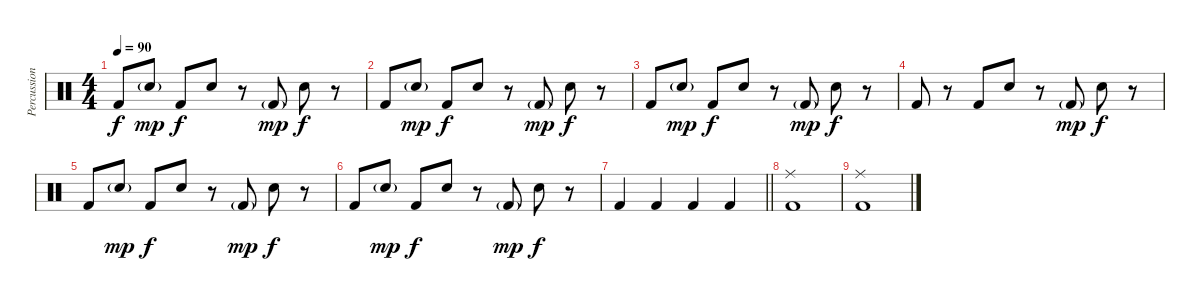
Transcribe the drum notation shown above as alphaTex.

\track ("Percussion" "Percussion") {instrument percussion}
\staff {score}
\articulation defaults
\ts (4 4)
\tempo 90
\clef neutral
\ks c "Kick (hit) 2".8{dy f} "Snare (hit) 2"{g}.8{dy mp} "Kick (hit) 2".8{dy f} "Snare (hit) 2".8
r.8 "Kick (hit) 2"{g}.8{dy mp} "Snare (hit) 2".8{dy f} r.8 |
"Kick (hit) 2".8 "Snare (hit) 2"{g}.8{dy mp} "Kick (hit) 2".8{dy f} "Snare (hit) 2".8 r.8 "Kick (hit) 2"{g}.8{dy mp} "Snare (hit) 2".8{dy f} r.8 |
"Kick (hit) 2".8 "Snare (hit) 2"{g}.8{dy mp} "Kick (hit) 2".8{dy f} "Snare (hit) 2".8 r.8 "Kick (hit) 2"{g}.8{dy mp} "Snare (hit) 2".8{dy f} r.8 |
"Kick (hit) 2".8 r.8 "Kick (hit) 2".8 "Snare (hit) 2".8 r.8 "Kick (hit) 2"{g}.8{dy mp} "Snare (hit) 2".8{dy f} r.8 |
"Kick (hit) 2".8 "Snare (hit) 2"{g}.8{dy mp} "Kick (hit) 2".8{dy f} "Snare (hit) 2".8 r.8 "Kick (hit) 2"{g}.8{dy mp} "Snare (hit) 2".8{dy f} r.8 |
"Kick (hit) 2".8 "Snare (hit) 2"{g}.8{dy mp} "Kick (hit) 2".8{dy f} "Snare (hit) 2".8 r.8 "Kick (hit) 2"{g}.8{dy mp} "Snare (hit) 2".8{dy f} r.8 |
\barLineRight lightlight "Kick (hit) 2".4 "Kick (hit) 2".4 "Kick (hit) 2".4 "Kick (hit) 2".4
|
("Ride (middle)" "Kick (hit) 2").1 |
("Ride (middle)" "Kick (hit) 2").1
